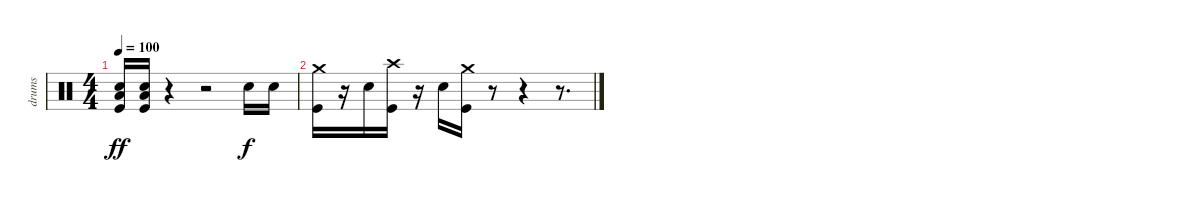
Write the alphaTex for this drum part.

\track ("drums" "drums") {instrument percussion}
\staff {score}
\articulation defaults
\ts (4 4)
\tempo 100
\clef neutral
\ks c
("Snare (hit) 2" "Low Floor Tom (hit)" "Kick (hit)").16{dy ff} ("Snare (hit) 2" "Low Floor Tom (hit)" "Kick (hit)").16 r.4 r.2 "Snare (hit) 2".16{dy f} "Snare (hit) 2".16 |
("Crash medium (hit)" "Kick (hit)").16 r.16 "Snare (hit) 2".16 ("Crash high (hit)" "Kick (hit)").16 r.16 "Snare (hit) 2".16 ("Crash medium (hit)" "Kick (hit)").16 r.8 r.4 r.8{d}
